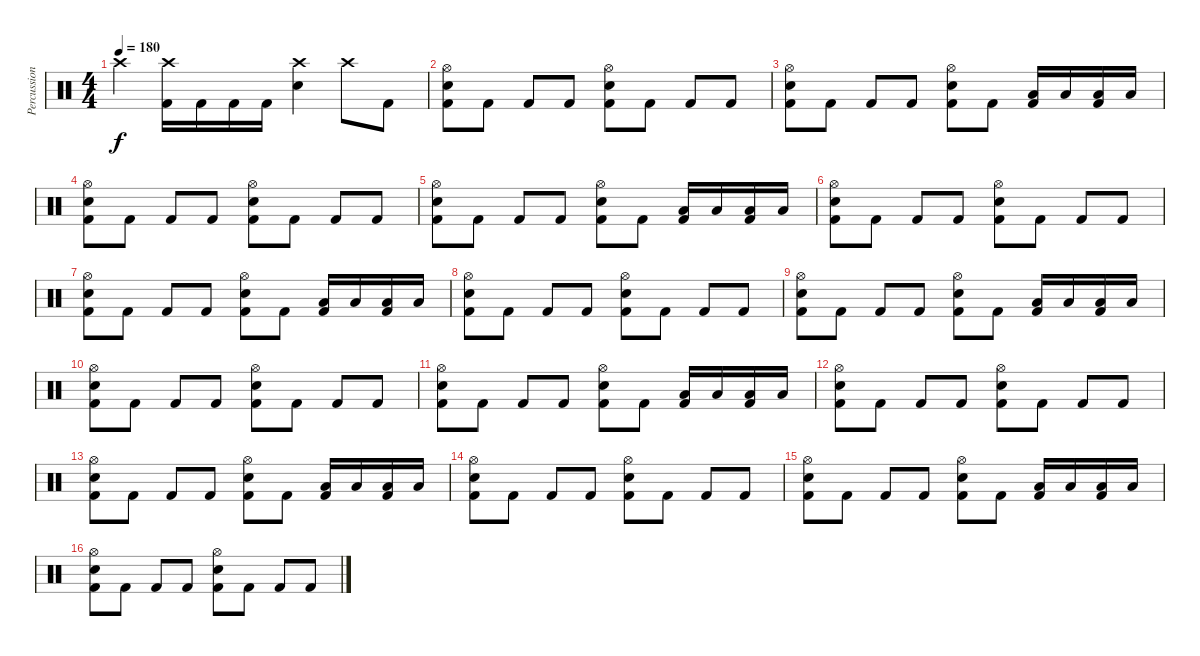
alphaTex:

\track ("Percussion" "Percussion") {instrument percussion}
\staff {score}
\articulation defaults
\ts (4 4)
\tempo 180
\clef neutral
\ks c "Crash high (hit)".4{dy f}
("Crash high (hit)" "Kick (hit) 2").16 "Kick (hit) 2".16 "Kick (hit) 2".16 "Kick (hit) 2".16 ("Crash high (hit)" "Snare (hit) 2").4 "Crash high (hit)".8 "Kick (hit) 2".8 |
("Hi-Hat (open)" "Snare (hit) 2" "Kick (hit) 2").8 "Kick (hit) 2".8 "Kick (hit) 2".8 "Kick (hit) 2".8 ("Hi-Hat (open)" "Snare (hit) 2" "Kick (hit) 2").8 "Kick (hit) 2".8 "Kick (hit) 2".8 "Kick (hit) 2".8 |
("Hi-Hat (open)" "Snare (hit) 2" "Kick (hit) 2").8 "Kick (hit) 2".8 "Kick (hit) 2".8 "Kick (hit) 2".8 ("Hi-Hat (open)" "Snare (hit) 2" "Kick (hit) 2").8 "Kick (hit) 2".8 ("Low Tom (hit)" "Kick (hit) 2").16 "Low Tom (hit)".16 ("Low Tom (hit)" "Kick (hit) 2").16 "Low Tom (hit)".16 |
("Hi-Hat (open)" "Snare (hit) 2" "Kick (hit) 2").8 "Kick (hit) 2".8 "Kick (hit) 2".8 "Kick (hit) 2".8 ("Hi-Hat (open)" "Snare (hit) 2" "Kick (hit) 2").8 "Kick (hit) 2".8 "Kick (hit) 2".8 "Kick (hit) 2".8 |
("Hi-Hat (open)" "Snare (hit) 2" "Kick (hit) 2").8 "Kick (hit) 2".8 "Kick (hit) 2".8 "Kick (hit) 2".8 ("Hi-Hat (open)" "Snare (hit) 2" "Kick (hit) 2").8 "Kick (hit) 2".8 ("Low Tom (hit)" "Kick (hit) 2").16 "Low Tom (hit)".16 ("Low Tom (hit)" "Kick (hit) 2").16 "Low Tom (hit)".16 |
("Hi-Hat (open)" "Snare (hit) 2" "Kick (hit) 2").8 "Kick (hit) 2".8 "Kick (hit) 2".8 "Kick (hit) 2".8 ("Hi-Hat (open)" "Snare (hit) 2" "Kick (hit) 2").8 "Kick (hit) 2".8 "Kick (hit) 2".8 "Kick (hit) 2".8 |
("Hi-Hat (open)" "Snare (hit) 2" "Kick (hit) 2").8 "Kick (hit) 2".8 "Kick (hit) 2".8 "Kick (hit) 2".8 ("Hi-Hat (open)" "Snare (hit) 2" "Kick (hit) 2").8 "Kick (hit) 2".8 ("Low Tom (hit)" "Kick (hit) 2").16 "Low Tom (hit)".16 ("Low Tom (hit)" "Kick (hit) 2").16 "Low Tom (hit)".16 |
("Hi-Hat (open)" "Snare (hit) 2" "Kick (hit) 2").8 "Kick (hit) 2".8 "Kick (hit) 2".8 "Kick (hit) 2".8 ("Hi-Hat (open)" "Snare (hit) 2" "Kick (hit) 2").8 "Kick (hit) 2".8 "Kick (hit) 2".8 "Kick (hit) 2".8 |
("Hi-Hat (open)" "Snare (hit) 2" "Kick (hit) 2").8 "Kick (hit) 2".8 "Kick (hit) 2".8 "Kick (hit) 2".8 ("Hi-Hat (open)" "Snare (hit) 2" "Kick (hit) 2").8 "Kick (hit) 2".8 ("Low Tom (hit)" "Kick (hit) 2").16 "Low Tom (hit)".16 ("Low Tom (hit)" "Kick (hit) 2").16 "Low Tom (hit)".16 |
("Hi-Hat (open)" "Snare (hit) 2" "Kick (hit) 2").8 "Kick (hit) 2".8 "Kick (hit) 2".8 "Kick (hit) 2".8 ("Hi-Hat (open)" "Snare (hit) 2" "Kick (hit) 2").8 "Kick (hit) 2".8 "Kick (hit) 2".8 "Kick (hit) 2".8 |
("Hi-Hat (open)" "Snare (hit) 2" "Kick (hit) 2").8 "Kick (hit) 2".8 "Kick (hit) 2".8 "Kick (hit) 2".8 ("Hi-Hat (open)" "Snare (hit) 2" "Kick (hit) 2").8 "Kick (hit) 2".8 ("Low Tom (hit)" "Kick (hit) 2").16 "Low Tom (hit)".16 ("Low Tom (hit)" "Kick (hit) 2").16 "Low Tom (hit)".16 |
("Hi-Hat (open)" "Snare (hit) 2" "Kick (hit) 2").8 "Kick (hit) 2".8 "Kick (hit) 2".8 "Kick (hit) 2".8 ("Hi-Hat (open)" "Snare (hit) 2" "Kick (hit) 2").8 "Kick (hit) 2".8 "Kick (hit) 2".8 "Kick (hit) 2".8 |
("Hi-Hat (open)" "Snare (hit) 2" "Kick (hit) 2").8 "Kick (hit) 2".8 "Kick (hit) 2".8 "Kick (hit) 2".8 ("Hi-Hat (open)" "Snare (hit) 2" "Kick (hit) 2").8 "Kick (hit) 2".8 ("Low Tom (hit)" "Kick (hit) 2").16 "Low Tom (hit)".16 ("Low Tom (hit)" "Kick (hit) 2").16 "Low Tom (hit)".16 |
("Hi-Hat (open)" "Snare (hit) 2" "Kick (hit) 2").8 "Kick (hit) 2".8 "Kick (hit) 2".8 "Kick (hit) 2".8 ("Hi-Hat (open)" "Snare (hit) 2" "Kick (hit) 2").8 "Kick (hit) 2".8 "Kick (hit) 2".8 "Kick (hit) 2".8 |
("Hi-Hat (open)" "Snare (hit) 2" "Kick (hit) 2").8 "Kick (hit) 2".8 "Kick (hit) 2".8 "Kick (hit) 2".8 ("Hi-Hat (open)" "Snare (hit) 2" "Kick (hit) 2").8 "Kick (hit) 2".8 ("Low Tom (hit)" "Kick (hit) 2").16 "Low Tom (hit)".16 ("Low Tom (hit)" "Kick (hit) 2").16 "Low Tom (hit)".16 |
("Hi-Hat (open)" "Snare (hit) 2" "Kick (hit) 2").8 "Kick (hit) 2".8 "Kick (hit) 2".8 "Kick (hit) 2".8 ("Hi-Hat (open)" "Snare (hit) 2" "Kick (hit) 2").8 "Kick (hit) 2".8 "Kick (hit) 2".8 "Kick (hit) 2".8
